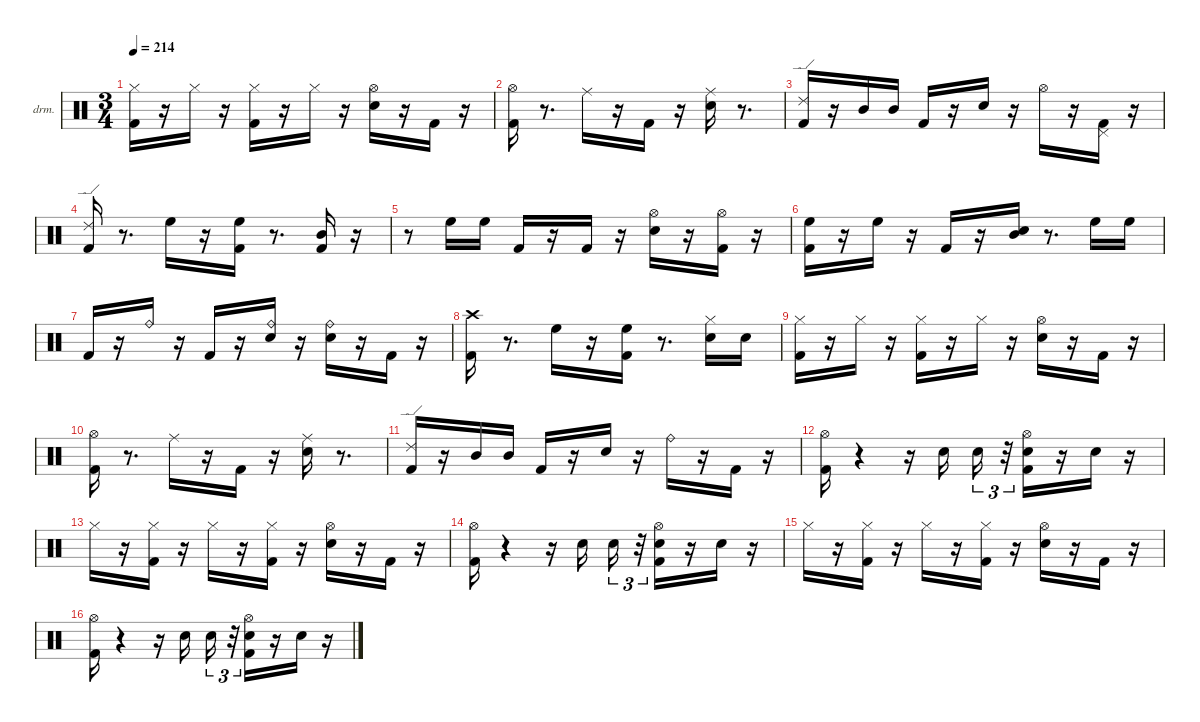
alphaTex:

\hideDynamics
\bracketExtendMode nobrackets
\firstSystemTrackNameOrientation horizontal
\otherSystemsTrackNameOrientation horizontal
\track ("EZdrummer 3" "drm.") {instrument percussion}
\staff {score}
\articulation defaults
\ts (3 4)
\tempo 214
\clef neutral
\ks aminor
("Kick (hit) 2" "Hi-Hat (closed)"{acc #}).16{dy ff beam Down} r.16{beam Down} "Hi-Hat (closed)"{acc #}.16{dy p beam Down} r.16{beam Down} ("Kick (hit) 2" "Hi-Hat (closed)"{acc #}).16{dy f beam Down} r.16{beam Down} "Hi-Hat (closed)"{acc #}.16{dy p beam Down} r.16{beam Down} ("Snare (hit) 2" "Hi-Hat (open)"{acc #}).16{dy ff beam Down} r.16{beam Down} "Kick (hit) 2".16{dy mf beam Up} r.16{beam Up} |
("Kick (hit) 2" "Hi-Hat (open)"{acc #}).16{dy fff beam Down} r.8{d beam Down} "Ride (middle)"{acc #}.16{dy ff beam Down} r.16{beam Down} "Kick (hit) 2".16{beam Up} r.16{beam Up} ("Snare (hit) 2" "Ride (middle)"{acc #}).16{beam Down} r.8{d beam Down} |
("Kick (hit) 2" "Ride (edge) 2").16{beam Up} r.16{beam Up} "Mid Tom (hit)".16{dy f beam Up} "Mid Tom (hit)".16{dy mp beam Up} "Kick (hit) 2".16{dy ff beam Up} r.16{beam Up} "Snare (hit) 2".16{beam Down} r.16{beam Down} "Hi-Hat (open)"{acc #}.16{dy fff beam Down} r.16{beam Down} ("Kick (hit) 2" "Pedal Hi-Hat (hit)"{acc #}).16{dy ff beam Up} r.16{beam Up} |
("Kick (hit) 2" "Ride (edge) 2").16{dy fff beam Up} r.8{d beam Up} "High Floor Tom (hit)".16{dy mf beam Down} r.16{beam Down} ("Kick (hit) 2" "High Floor Tom (hit)").16{dy fff beam Down} r.8{d beam Down} ("Kick (hit) 2" "Mid Tom (hit)").16{dy ff beam Up} r.16{beam Up} |
r.8{beam Down} "High Floor Tom (hit)".16{dy f beam Down} "High Floor Tom (hit)".16{dy mp beam Down} "Kick (hit) 2".16{dy mf beam Up} r.16{beam Up} "Kick (hit) 2".16{dy fff beam Up} r.16{beam Up} ("Snare (hit) 2" "Hi-Hat (open)"{acc #}).16{dy ff beam Down} r.16{beam Down} ("Kick (hit) 2" "Hi-Hat (open)"{acc #}).16{dy mp beam Down} r.16{beam Down} |
("Kick (hit) 2" "High Floor Tom (hit)").16{dy fff beam Down} r.16{beam Down} "High Floor Tom (hit)".16{dy mf beam Down} r.16{beam Down} "Kick (hit) 2".16{dy mp beam Up} r.16{beam Up} ("Snare (hit) 2" "Mid Tom (hit)").16{dy fff beam Down} r.8{d beam Down} "High Floor Tom (hit)".16{dy ff beam Down} "High Floor Tom (hit)".16{dy mf beam Down} |
"Kick (hit) 2".16{beam Up} r.16{beam Up} "Ride (bell)".16{dy fff beam Down} r.16{beam Down} "Kick (hit) 2".16{dy ff beam Up} r.16{beam Up} ("Snare (hit) 2" "Ride (bell)").16{dy mf beam Down} r.16{beam Down} ("Snare (hit) 2" "Ride (bell)").16{dy fff beam Down} r.16{beam Down} "Kick (hit) 2".16{dy mf beam Up} r.16{beam Up} |
("Kick (hit) 2" "Crash high (hit)"{acc #}).16{dy fff beam Down} r.8{d beam Down} "High Floor Tom (hit)".16{beam Down} r.16{beam Down} ("Kick (hit) 2" "High Floor Tom (hit)").16{dy f beam Down} r.8{d beam Down} ("Snare (hit) 2" "Hi-Hat (closed)"{acc #}).16{dy mf beam Down} "Snare (hit) 2".16{dy p beam Down} |
("Kick (hit) 2" "Hi-Hat (closed)"{acc #}).16{dy ff beam Down} r.16{beam Down} "Hi-Hat (closed)"{acc #}.16{dy p beam Down} r.16{beam Down} ("Kick (hit) 2" "Hi-Hat (closed)"{acc #}).16{dy f beam Down} r.16{beam Down} "Hi-Hat (closed)"{acc #}.16{dy p beam Down} r.16{beam Down} ("Snare (hit) 2" "Hi-Hat (open)"{acc #}).16{dy f beam Down} r.16{beam Down} "Kick (hit) 2".16{dy mf beam Up} r.16{beam Up} |
("Kick (hit) 2" "Hi-Hat (open)"{acc #}).16{dy fff beam Down} r.8{d beam Down} "Ride (middle)"{acc #}.16{dy ff beam Down} r.16{beam Down} "Kick (hit) 2".16{beam Up} r.16{beam Up} ("Snare (hit) 2" "Ride (middle)"{acc #}).16{beam Down} r.8{d beam Down} |
("Kick (hit) 2" "Ride (edge) 2").16{beam Up} r.16{beam Up} "Mid Tom (hit)".16{dy f beam Up} "Mid Tom (hit)".16{dy mp beam Up} "Kick (hit) 2".16{dy ff beam Up} r.16{beam Up} "Snare (hit) 2".16{beam Down} r.16{beam Down} "Ride (bell)".16{dy fff beam Down} r.16{beam Down} "Kick (hit) 2".16{dy mf beam Up} r.16{beam Up} |
("Kick (hit) 2" "Hi-Hat (open)"{acc #}).16{dy ff beam Down} r.4{beam Down} r.16{beam Down} "Snare (hit) 2".16{dy f beam Down} "Snare (hit) 2".16{tu (3 2) dy p beam Down} r.32{tu (3 2) beam Down} ("Kick (hit) 2" "Snare (hit) 2" "Hi-Hat (open)"{acc #}).16{dy f beam Down} r.16{beam Down} "Snare (hit) 2".16{dy fff beam Down} r.16{beam Down} |
"Hi-Hat (closed)"{acc #}.16{dy f beam Down} r.16{beam Down} ("Kick (hit) 2" "Hi-Hat (closed)"{acc #}).16{dy ff beam Down} r.16{beam Down} "Hi-Hat (closed)"{acc #}.16{dy pp beam Down} r.16{beam Down} ("Kick (hit) 2" "Hi-Hat (closed)"{acc #}).16{dy f beam Down} r.16{beam Down} ("Snare (hit) 2" "Hi-Hat (open)"{acc #}).16{dy ff beam Down} r.16{beam Down} "Kick (hit) 2".16{dy mf beam Up} r.16{beam Up} |
("Kick (hit) 2" "Hi-Hat (open)"{acc #}).16{dy ff beam Down} r.4{beam Down} r.16{beam Down} "Snare (hit) 2".16{dy f beam Down} "Snare (hit) 2".16{tu (3 2) dy p beam Down} r.32{tu (3 2) beam Down} ("Kick (hit) 2" "Snare (hit) 2" "Hi-Hat (open)"{acc #}).16{dy f beam Down} r.16{beam Down} "Snare (hit) 2".16{dy fff beam Down} r.16{beam Down} |
"Hi-Hat (closed)"{acc #}.16{dy f beam Down} r.16{beam Down} ("Kick (hit) 2" "Hi-Hat (closed)"{acc #}).16{dy ff beam Down} r.16{beam Down} "Hi-Hat (closed)"{acc #}.16{dy pp beam Down} r.16{beam Down} ("Kick (hit) 2" "Hi-Hat (closed)"{acc #}).16{dy f beam Down} r.16{beam Down} ("Snare (hit) 2" "Hi-Hat (open)"{acc #}).16{dy ff beam Down} r.16{beam Down} "Kick (hit) 2".16{dy mf beam Up} r.16{beam Up} |
("Kick (hit) 2" "Hi-Hat (open)"{acc #}).16{dy ff beam Down} r.4{beam Down} r.16{beam Down} "Snare (hit) 2".16{dy f beam Down} "Snare (hit) 2".16{tu (3 2) dy p beam Down} r.32{tu (3 2) beam Down} ("Kick (hit) 2" "Snare (hit) 2" "Hi-Hat (open)"{acc #}).16{dy f beam Down} r.16{beam Down} "Snare (hit) 2".16{dy fff beam Down} r.16{beam Down}
